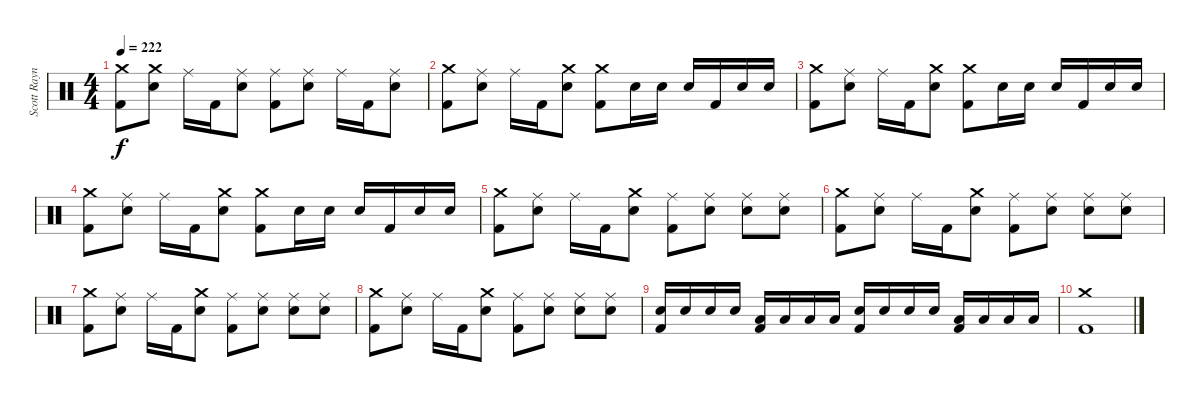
\track ("Scott Raynor - Bateria/Drums" "Scott Rayn") {instrument percussion}
\staff {score}
\articulation defaults
\ts (4 4)
\tempo 222
\clef neutral
\ks c
("Crash medium (hit)" "Kick (hit) 2").8{dy f} ("Crash medium (hit)" "Electric Snare (hit)").8 "Ride (middle)".16 "Kick (hit) 2".16 ("Ride (middle)" "Electric Snare (hit)").8 ("Ride (middle)" "Kick (hit) 2").8 ("Ride (middle)" "Electric Snare (hit)").8 "Ride (middle)".16 "Kick (hit) 2".16 ("Ride (middle)" "Electric Snare (hit)").8 |
("Crash medium (hit)" "Kick (hit) 2").8 ("Ride (middle)" "Electric Snare (hit)").8 "Ride (middle)".16 "Kick (hit) 2".16 ("Crash medium (hit)" "Electric Snare (hit)").8 ("Crash medium (hit)" "Kick (hit) 2").8 "Electric Snare (hit)".16 "Electric Snare (hit)".16 "Electric Snare (hit)".16 "Kick (hit) 2".16 "Electric Snare (hit)".16 "Electric Snare (hit)".16 |
("Crash medium (hit)" "Kick (hit) 2").8 ("Ride (middle)" "Electric Snare (hit)").8 "Ride (middle)".16 "Kick (hit) 2".16 ("Crash medium (hit)" "Electric Snare (hit)").8 ("Crash medium (hit)" "Kick (hit) 2").8 "Electric Snare (hit)".16 "Electric Snare (hit)".16 "Electric Snare (hit)".16 "Kick (hit) 2".16 "Electric Snare (hit)".16 "Electric Snare (hit)".16 |
("Crash medium (hit)" "Kick (hit) 2").8 ("Ride (middle)" "Electric Snare (hit)").8 "Ride (middle)".16 "Kick (hit) 2".16 ("Crash medium (hit)" "Electric Snare (hit)").8 ("Crash medium (hit)" "Kick (hit) 2").8 "Electric Snare (hit)".16 "Electric Snare (hit)".16 "Electric Snare (hit)".16 "Kick (hit) 2".16 "Electric Snare (hit)".16 "Electric Snare (hit)".16 |
("Crash medium (hit)" "Kick (hit) 2").8 ("Ride (middle)" "Electric Snare (hit)").8 "Ride (middle)".16 "Kick (hit) 2".16 ("Crash medium (hit)" "Electric Snare (hit)").8 ("Ride (middle)" "Kick (hit) 2").8 ("Ride (middle)" "Electric Snare (hit)").8 ("Ride (middle)" "Electric Snare (hit)").8 ("Ride (middle)" "Electric Snare (hit)").8 |
("Crash medium (hit)" "Kick (hit) 2").8 ("Ride (middle)" "Electric Snare (hit)").8 "Ride (middle)".16 "Kick (hit) 2".16 ("Crash medium (hit)" "Electric Snare (hit)").8 ("Ride (middle)" "Kick (hit) 2").8 ("Ride (middle)" "Electric Snare (hit)").8 ("Ride (middle)" "Electric Snare (hit)").8 ("Ride (middle)" "Electric Snare (hit)").8 |
("Crash medium (hit)" "Kick (hit) 2").8 ("Ride (middle)" "Electric Snare (hit)").8 "Ride (middle)".16 "Kick (hit) 2".16 ("Crash medium (hit)" "Electric Snare (hit)").8 ("Ride (middle)" "Kick (hit) 2").8 ("Ride (middle)" "Electric Snare (hit)").8 ("Ride (middle)" "Electric Snare (hit)").8 ("Ride (middle)" "Electric Snare (hit)").8 |
("Crash medium (hit)" "Kick (hit) 2").8 ("Ride (middle)" "Electric Snare (hit)").8 "Ride (middle)".16 "Kick (hit) 2".16 ("Crash medium (hit)" "Electric Snare (hit)").8 ("Ride (middle)" "Kick (hit) 2").8 ("Ride (middle)" "Electric Snare (hit)").8 ("Ride (middle)" "Electric Snare (hit)").8 ("Ride (middle)" "Electric Snare (hit)").8 |
("Electric Snare (hit)" "Kick (hit) 2").16 "Electric Snare (hit)".16 "Electric Snare (hit)".16 "Electric Snare (hit)".16 ("Low Tom (hit)" "Kick (hit) 2").16 "Low Tom (hit)".16 "Low Tom (hit)".16 "Low Tom (hit)".16 ("Electric Snare (hit)" "Kick (hit) 2").16 "Electric Snare (hit)".16 "Electric Snare (hit)".16 "Electric Snare (hit)".16 ("Low Tom (hit)" "Kick (hit) 2").16 "Low Tom (hit)".16 "Low Tom (hit)".16 "Low Tom (hit)".16 |
("Crash medium (hit)" "Kick (hit) 2").1
